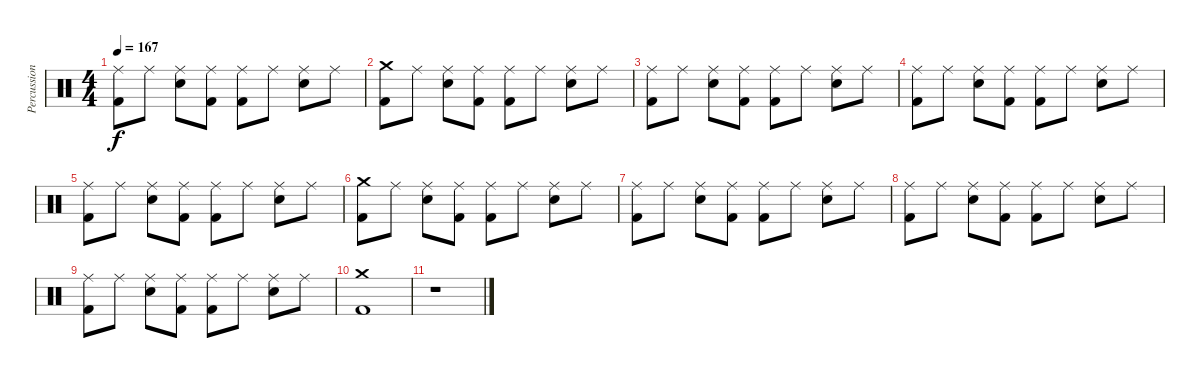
\track ("Percussion" "Percussion") {instrument percussion}
\staff {score}
\articulation defaults
\ts (4 4)
\tempo 167
\clef neutral
\ks c
("Ride (middle)" "Kick (hit) 2").8{dy f} "Ride (middle)".8 ("Ride (middle)" "Snare (hit) 2").8 ("Ride (middle)" "Kick (hit) 2").8 ("Ride (middle)" "Kick (hit) 2").8 "Ride (middle)".8 ("Ride (middle)" "Snare (hit) 2").8 "Ride (middle)".8 |
("Crash medium (hit)" "Kick (hit) 2").8 "Ride (middle)".8 ("Ride (middle)" "Snare (hit) 2").8 ("Ride (middle)" "Kick (hit) 2").8 ("Ride (middle)" "Kick (hit) 2").8 "Ride (middle)".8 ("Ride (middle)" "Snare (hit) 2").8 "Ride (middle)".8 |
("Ride (middle)" "Kick (hit) 2").8 "Ride (middle)".8 ("Ride (middle)" "Snare (hit) 2").8 ("Ride (middle)" "Kick (hit) 2").8 ("Ride (middle)" "Kick (hit) 2").8 "Ride (middle)".8 ("Ride (middle)" "Snare (hit) 2").8 "Ride (middle)".8 |
("Ride (middle)" "Kick (hit) 2").8 "Ride (middle)".8 ("Ride (middle)" "Snare (hit) 2").8 ("Ride (middle)" "Kick (hit) 2").8 ("Ride (middle)" "Kick (hit) 2").8 "Ride (middle)".8 ("Ride (middle)" "Snare (hit) 2").8 "Ride (middle)".8 |
("Ride (middle)" "Kick (hit) 2").8 "Ride (middle)".8 ("Ride (middle)" "Snare (hit) 2").8 ("Ride (middle)" "Kick (hit) 2").8 ("Ride (middle)" "Kick (hit) 2").8 "Ride (middle)".8 ("Ride (middle)" "Snare (hit) 2").8 "Ride (middle)".8 |
("Crash medium (hit)" "Kick (hit) 2").8 "Ride (middle)".8 ("Ride (middle)" "Snare (hit) 2").8 ("Ride (middle)" "Kick (hit) 2").8 ("Ride (middle)" "Kick (hit) 2").8 "Ride (middle)".8 ("Ride (middle)" "Snare (hit) 2").8 "Ride (middle)".8 |
("Ride (middle)" "Kick (hit) 2").8 "Ride (middle)".8 ("Ride (middle)" "Snare (hit) 2").8 ("Ride (middle)" "Kick (hit) 2").8 ("Ride (middle)" "Kick (hit) 2").8 "Ride (middle)".8 ("Ride (middle)" "Snare (hit) 2").8 "Ride (middle)".8 |
("Ride (middle)" "Kick (hit) 2").8 "Ride (middle)".8 ("Ride (middle)" "Snare (hit) 2").8 ("Ride (middle)" "Kick (hit) 2").8 ("Ride (middle)" "Kick (hit) 2").8 "Ride (middle)".8 ("Ride (middle)" "Snare (hit) 2").8 "Ride (middle)".8 |
("Ride (middle)" "Kick (hit) 2").8 "Ride (middle)".8 ("Ride (middle)" "Snare (hit) 2").8 ("Ride (middle)" "Kick (hit) 2").8 ("Ride (middle)" "Kick (hit) 2").8 "Ride (middle)".8 ("Ride (middle)" "Snare (hit) 2").8 "Ride (middle)".8 |
("Crash medium (hit)" "Kick (hit) 2").1 |
r.1
